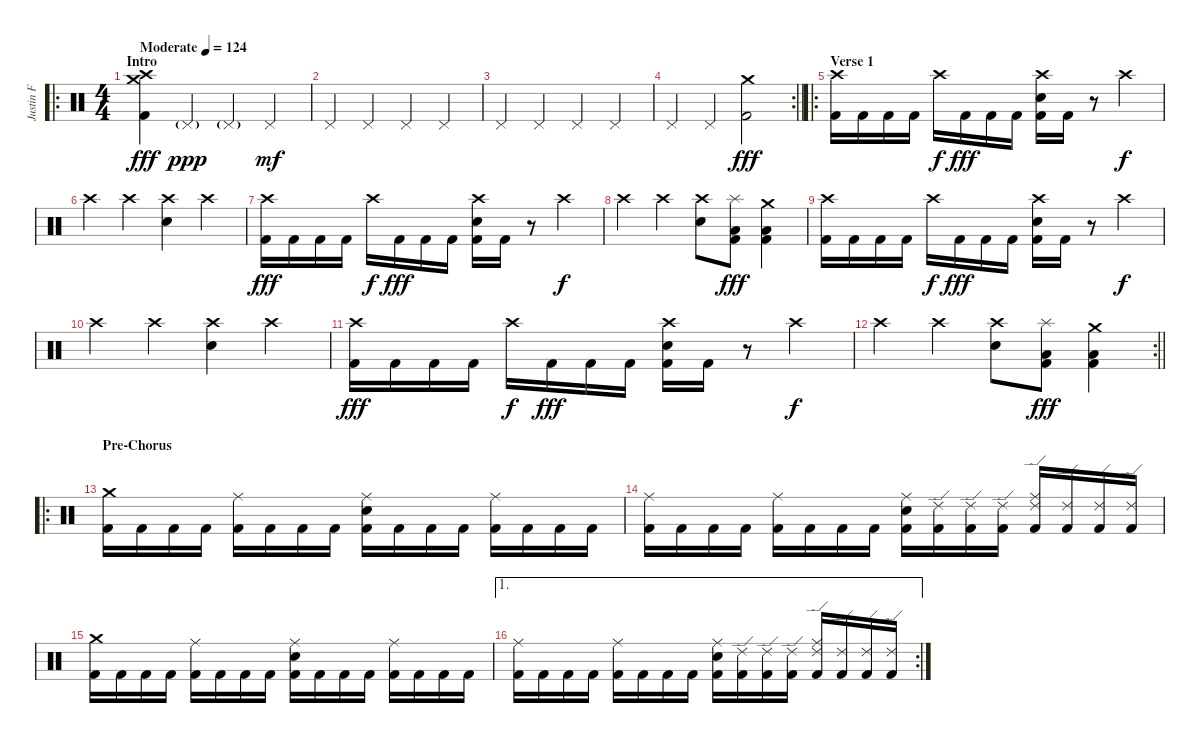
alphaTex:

\track ("Justin F" "Justin F") {instrument percussion}
\staff {score}
\articulation defaults
\ro
\ts (4 4)
\section ("" "Intro")
\tempo (124 "Moderate")
\clef neutral
\ks c
("Crash medium (hit)" "Crash high (hit)" "Kick (hit) 2").4{dy fff} "Pedal Hi-Hat (hit)"{g}.4{dy ppp} "Pedal Hi-Hat (hit)"{g}.4 "Pedal Hi-Hat (hit)".4{dy mf} |
"Pedal Hi-Hat (hit)".4 "Pedal Hi-Hat (hit)".4 "Pedal Hi-Hat (hit)".4 "Pedal Hi-Hat (hit)".4 |
"Pedal Hi-Hat (hit)".4 "Pedal Hi-Hat (hit)".4 "Pedal Hi-Hat (hit)".4 "Pedal Hi-Hat (hit)".4 |
\rc 2
\barLineRight lightlight "Pedal Hi-Hat (hit)".4 "Pedal Hi-Hat (hit)".4
("Crash medium (hit)" "Kick (hit) 2").2{dy fff} |
\ro
\section ("" "Verse 1")
("Crash high (hit)" "Kick (hit) 2").16 "Kick (hit) 2".16 "Kick (hit) 2".16 "Kick (hit) 2".16 "Crash high (hit)".16{dy f} "Kick (hit) 2".16{dy fff} "Kick (hit) 2".16 "Kick (hit) 2".16 ("Crash high (hit)" "Snare (hit) 2" "Kick (hit) 2").16 "Kick (hit) 2".16 r.8 "Crash high (hit)".4{dy f} |
"Crash high (hit)".4 "Crash high (hit)".4 ("Crash high (hit)" "Snare (hit) 2").4 "Crash high (hit)".4 |
("Crash high (hit)" "Kick (hit) 2").16{dy fff} "Kick (hit) 2".16 "Kick (hit) 2".16 "Kick (hit) 2".16 "Crash high (hit)".16{dy f} "Kick (hit) 2".16{dy fff} "Kick (hit) 2".16 "Kick (hit) 2".16 ("Crash high (hit)" "Snare (hit) 2" "Kick (hit) 2").16 "Kick (hit) 2".16 r.8 "Crash high (hit)".4{dy f} |
"Crash high (hit)".4 "Crash high (hit)".4 ("Crash high (hit)" "Snare (hit) 2").8 ("Splash (hit)" "Low Tom (hit)" "Kick (hit) 2").8{dy fff} ("Crash medium (hit)" "Low Floor Tom (hit)" "Kick (hit) 2").4 |
("Crash high (hit)" "Kick (hit) 2").16 "Kick (hit) 2".16 "Kick (hit) 2".16 "Kick (hit) 2".16 "Crash high (hit)".16{dy f} "Kick (hit) 2".16{dy fff} "Kick (hit) 2".16 "Kick (hit) 2".16 ("Crash high (hit)" "Snare (hit) 2" "Kick (hit) 2").16 "Kick (hit) 2".16 r.8 "Crash high (hit)".4{dy f} |
"Crash high (hit)".4 "Crash high (hit)".4 ("Crash high (hit)" "Snare (hit) 2").4 "Crash high (hit)".4 |
("Crash high (hit)" "Kick (hit) 2").16{dy fff} "Kick (hit) 2".16 "Kick (hit) 2".16 "Kick (hit) 2".16 "Crash high (hit)".16{dy f} "Kick (hit) 2".16{dy fff} "Kick (hit) 2".16 "Kick (hit) 2".16 ("Crash high (hit)" "Snare (hit) 2" "Kick (hit) 2").16 "Kick (hit) 2".16 r.8 "Crash high (hit)".4{dy f} |
\rc 2
\barLineRight lightlight "Crash high (hit)".4 "Crash high (hit)".4
("Crash high (hit)" "Snare (hit) 2").8 ("Splash (hit)" "Low Tom (hit)" "Kick (hit) 2").8{dy fff} ("Crash medium (hit)" "Low Floor Tom (hit)" "Kick (hit) 2").4 |
\ro
\section ("" "Pre-Chorus")
("Crash medium (hit)" "Kick (hit) 2").16 "Kick (hit) 2".16 "Kick (hit) 2".16 "Kick (hit) 2".16 ("Ride (middle)" "Kick (hit) 2").16 "Kick (hit) 2".16 "Kick (hit) 2".16 "Kick (hit) 2".16 ("Ride (middle)" "Snare (hit) 2" "Kick (hit) 2").16 "Kick (hit) 2".16 "Kick (hit) 2".16 "Kick (hit) 2".16 ("Ride (middle)" "Kick (hit) 2").16 "Kick (hit) 2".16 "Kick (hit) 2".16 "Kick (hit) 2".16 |
("Ride (middle)" "Kick (hit) 2").16 "Kick (hit) 2".16 "Kick (hit) 2".16 "Kick (hit) 2".16 ("Ride (middle)" "Kick (hit) 2").16 "Kick (hit) 2".16 "Kick (hit) 2".16 "Kick (hit) 2".16 ("Ride (middle)" "Snare (hit) 2" "Kick (hit) 2").16 ("Ride (edge) 2" "Kick (hit) 2").16 ("Ride (edge) 2" "Kick (hit) 2").16 ("Ride (edge) 2" "Kick (hit) 2").16 ("Ride (middle)" "Ride (edge) 2" "Kick (hit) 2").16 ("Ride (edge) 2" "Kick (hit) 2").16 ("Ride (edge) 2" "Kick (hit) 2").16 ("Ride (edge) 2" "Kick (hit) 2").16 |
("Crash medium (hit)" "Kick (hit) 2").16 "Kick (hit) 2".16 "Kick (hit) 2".16 "Kick (hit) 2".16 ("Ride (middle)" "Kick (hit) 2").16 "Kick (hit) 2".16 "Kick (hit) 2".16 "Kick (hit) 2".16 ("Ride (middle)" "Snare (hit) 2" "Kick (hit) 2").16 "Kick (hit) 2".16 "Kick (hit) 2".16 "Kick (hit) 2".16 ("Ride (middle)" "Kick (hit) 2").16 "Kick (hit) 2".16 "Kick (hit) 2".16 "Kick (hit) 2".16 |
\ae 1
\rc 2
("Ride (middle)" "Kick (hit) 2").16 "Kick (hit) 2".16 "Kick (hit) 2".16 "Kick (hit) 2".16 ("Ride (middle)" "Kick (hit) 2").16 "Kick (hit) 2".16 "Kick (hit) 2".16 "Kick (hit) 2".16 ("Ride (middle)" "Snare (hit) 2" "Kick (hit) 2").16 ("Ride (edge) 2" "Kick (hit) 2").16 ("Ride (edge) 2" "Kick (hit) 2").16 ("Ride (edge) 2" "Kick (hit) 2").16 ("Ride (middle)" "Ride (edge) 2" "Kick (hit) 2").16 ("Ride (edge) 2" "Kick (hit) 2").16 ("Ride (edge) 2" "Kick (hit) 2").16 ("Ride (edge) 2" "Kick (hit) 2").16
